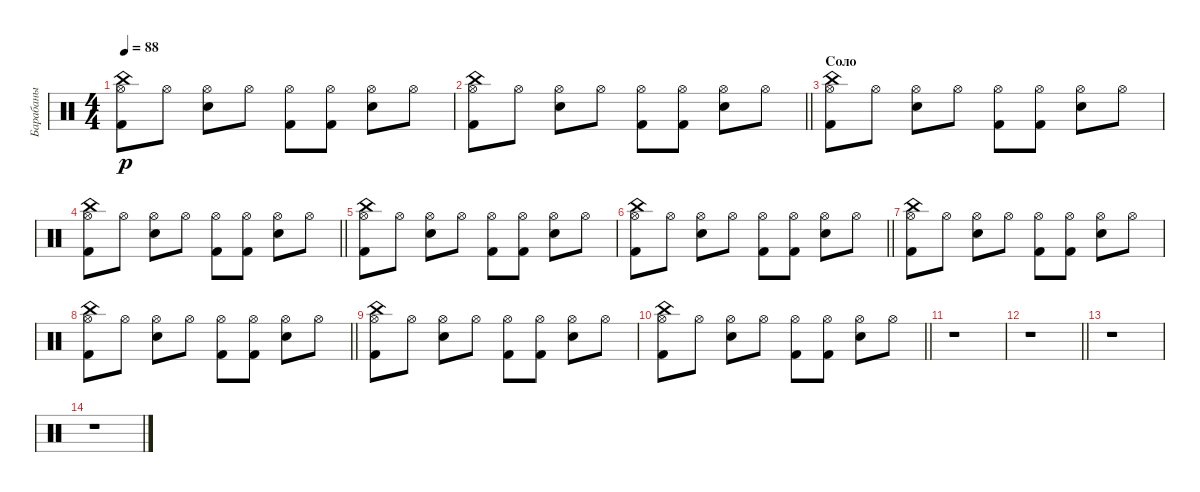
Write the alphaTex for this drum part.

\track ("Барабаны" "Барабаны") {instrument percussion}
\staff {score}
\articulation defaults
\ts (4 4)
\tempo 88
\clef neutral
\ks c
("China (hit)" "Kick (hit) 2" "Hi-Hat (open)").8{dy p} "Hi-Hat (open)".8 ("Electric Snare (hit)" "Hi-Hat (open)").8 "Hi-Hat (open)".8 ("Kick (hit) 2" "Hi-Hat (open)").8 ("Kick (hit) 2" "Hi-Hat (open)").8 ("Electric Snare (hit)" "Hi-Hat (open)").8 "Hi-Hat (open)".8 |
\barLineRight lightlight
("China (hit)" "Kick (hit) 2" "Hi-Hat (open)").8 "Hi-Hat (open)".8 ("Electric Snare (hit)" "Hi-Hat (open)").8 "Hi-Hat (open)".8 ("Kick (hit) 2" "Hi-Hat (open)").8 ("Kick (hit) 2" "Hi-Hat (open)").8 ("Electric Snare (hit)" "Hi-Hat (open)").8 "Hi-Hat (open)".8 |
\section ("" "Соло")
("China (hit)" "Kick (hit) 2" "Hi-Hat (open)").8 "Hi-Hat (open)".8 ("Electric Snare (hit)" "Hi-Hat (open)").8 "Hi-Hat (open)".8 ("Kick (hit) 2" "Hi-Hat (open)").8 ("Kick (hit) 2" "Hi-Hat (open)").8 ("Electric Snare (hit)" "Hi-Hat (open)").8 "Hi-Hat (open)".8 |
\barLineRight lightlight
("China (hit)" "Kick (hit) 2" "Hi-Hat (open)").8 "Hi-Hat (open)".8 ("Electric Snare (hit)" "Hi-Hat (open)").8 "Hi-Hat (open)".8 ("Kick (hit) 2" "Hi-Hat (open)").8 ("Kick (hit) 2" "Hi-Hat (open)").8 ("Electric Snare (hit)" "Hi-Hat (open)").8 "Hi-Hat (open)".8 |
("China (hit)" "Kick (hit) 2" "Hi-Hat (open)").8 "Hi-Hat (open)".8 ("Electric Snare (hit)" "Hi-Hat (open)").8 "Hi-Hat (open)".8 ("Kick (hit) 2" "Hi-Hat (open)").8 ("Kick (hit) 2" "Hi-Hat (open)").8 ("Electric Snare (hit)" "Hi-Hat (open)").8 "Hi-Hat (open)".8 |
\barLineRight lightlight
("China (hit)" "Kick (hit) 2" "Hi-Hat (open)").8 "Hi-Hat (open)".8 ("Electric Snare (hit)" "Hi-Hat (open)").8 "Hi-Hat (open)".8 ("Kick (hit) 2" "Hi-Hat (open)").8 ("Kick (hit) 2" "Hi-Hat (open)").8 ("Electric Snare (hit)" "Hi-Hat (open)").8 "Hi-Hat (open)".8 |
("China (hit)" "Kick (hit) 2" "Hi-Hat (open)").8 "Hi-Hat (open)".8 ("Electric Snare (hit)" "Hi-Hat (open)").8 "Hi-Hat (open)".8 ("Kick (hit) 2" "Hi-Hat (open)").8 ("Kick (hit) 2" "Hi-Hat (open)").8 ("Electric Snare (hit)" "Hi-Hat (open)").8 "Hi-Hat (open)".8 |
\barLineRight lightlight
("China (hit)" "Kick (hit) 2" "Hi-Hat (open)").8 "Hi-Hat (open)".8 ("Electric Snare (hit)" "Hi-Hat (open)").8 "Hi-Hat (open)".8 ("Kick (hit) 2" "Hi-Hat (open)").8 ("Kick (hit) 2" "Hi-Hat (open)").8 ("Electric Snare (hit)" "Hi-Hat (open)").8 "Hi-Hat (open)".8 |
("China (hit)" "Kick (hit) 2" "Hi-Hat (open)").8 "Hi-Hat (open)".8 ("Electric Snare (hit)" "Hi-Hat (open)").8 "Hi-Hat (open)".8 ("Kick (hit) 2" "Hi-Hat (open)").8 ("Kick (hit) 2" "Hi-Hat (open)").8 ("Electric Snare (hit)" "Hi-Hat (open)").8 "Hi-Hat (open)".8 |
\barLineRight lightlight
("China (hit)" "Kick (hit) 2" "Hi-Hat (open)").8 "Hi-Hat (open)".8 ("Electric Snare (hit)" "Hi-Hat (open)").8 "Hi-Hat (open)".8 ("Kick (hit) 2" "Hi-Hat (open)").8 ("Kick (hit) 2" "Hi-Hat (open)").8 ("Electric Snare (hit)" "Hi-Hat (open)").8 "Hi-Hat (open)".8 |
r.1 |
\barLineRight lightlight
r.1 |
r.1 |
r.1
